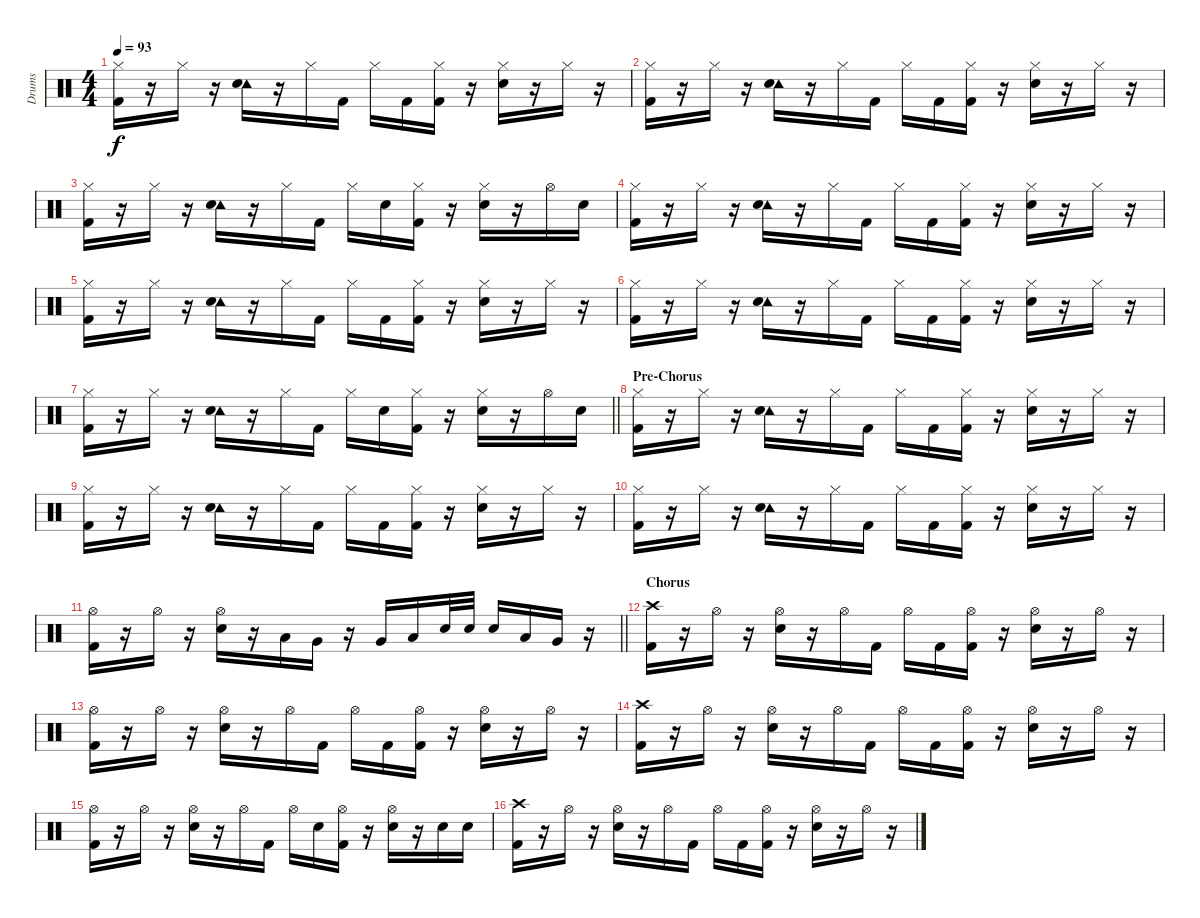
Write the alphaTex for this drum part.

\track ("Drums" "Drums") {instrument percussion}
\staff {score}
\articulation defaults
\ts (4 4)
\tempo 93
\clef neutral
\ks c
("Hi-Hat (closed)" "Kick (hit) 2").16{dy f} r.16 "Hi-Hat (closed)".16 r.16 ("Tambourine (hit)" "Electric Snare (hit)").16 r.16 "Hi-Hat (closed)".16 "Kick (hit) 2".16 "Hi-Hat (closed)".16 "Kick (hit) 2".16 ("Hi-Hat (closed)" "Kick (hit) 2").16 r.16 ("Hi-Hat (closed)" "Electric Snare (hit)").16 r.16 "Hi-Hat (closed)".16 r.16 |
("Hi-Hat (closed)" "Kick (hit) 2").16 r.16 "Hi-Hat (closed)".16 r.16 ("Tambourine (hit)" "Electric Snare (hit)").16 r.16 "Hi-Hat (closed)".16 "Kick (hit) 2".16 "Hi-Hat (closed)".16 "Kick (hit) 2".16 ("Hi-Hat (closed)" "Kick (hit) 2").16 r.16 ("Hi-Hat (closed)" "Electric Snare (hit)").16 r.16 "Hi-Hat (closed)".16 r.16 |
("Hi-Hat (closed)" "Kick (hit) 2").16 r.16 "Hi-Hat (closed)".16 r.16 ("Tambourine (hit)" "Electric Snare (hit)").16 r.16 "Hi-Hat (closed)".16 "Kick (hit) 2".16 "Hi-Hat (closed)".16 "Electric Snare (hit)".16 ("Hi-Hat (closed)" "Kick (hit) 2").16 r.16 ("Hi-Hat (closed)" "Electric Snare (hit)").16 r.16 "Hi-Hat (open)".16 "Electric Snare (hit)".16 |
("Hi-Hat (closed)" "Kick (hit) 2").16 r.16 "Hi-Hat (closed)".16 r.16 ("Tambourine (hit)" "Electric Snare (hit)").16 r.16 "Hi-Hat (closed)".16 "Kick (hit) 2".16 "Hi-Hat (closed)".16 "Kick (hit) 2".16 ("Hi-Hat (closed)" "Kick (hit) 2").16 r.16 ("Hi-Hat (closed)" "Electric Snare (hit)").16 r.16 "Hi-Hat (closed)".16 r.16 |
("Hi-Hat (closed)" "Kick (hit) 2").16 r.16 "Hi-Hat (closed)".16 r.16 ("Tambourine (hit)" "Electric Snare (hit)").16 r.16 "Hi-Hat (closed)".16 "Kick (hit) 2".16 "Hi-Hat (closed)".16 "Kick (hit) 2".16 ("Hi-Hat (closed)" "Kick (hit) 2").16 r.16 ("Hi-Hat (closed)" "Electric Snare (hit)").16 r.16 "Hi-Hat (closed)".16 r.16 |
("Hi-Hat (closed)" "Kick (hit) 2").16 r.16 "Hi-Hat (closed)".16 r.16 ("Tambourine (hit)" "Electric Snare (hit)").16 r.16 "Hi-Hat (closed)".16 "Kick (hit) 2".16 "Hi-Hat (closed)".16 "Kick (hit) 2".16 ("Hi-Hat (closed)" "Kick (hit) 2").16 r.16 ("Hi-Hat (closed)" "Electric Snare (hit)").16 r.16 "Hi-Hat (closed)".16 r.16 |
\barLineRight lightlight
("Hi-Hat (closed)" "Kick (hit) 2").16 r.16 "Hi-Hat (closed)".16 r.16 ("Tambourine (hit)" "Electric Snare (hit)").16 r.16 "Hi-Hat (closed)".16 "Kick (hit) 2".16 "Hi-Hat (closed)".16 "Electric Snare (hit)".16 ("Hi-Hat (closed)" "Kick (hit) 2").16 r.16 ("Hi-Hat (closed)" "Electric Snare (hit)").16 r.16 "Hi-Hat (open)".16 "Electric Snare (hit)".16 |
\section ("" "Pre-Chorus")
("Hi-Hat (closed)" "Kick (hit) 2").16 r.16 "Hi-Hat (closed)".16 r.16 ("Tambourine (hit)" "Electric Snare (hit)").16 r.16 "Hi-Hat (closed)".16 "Kick (hit) 2".16 "Hi-Hat (closed)".16 "Kick (hit) 2".16 ("Hi-Hat (closed)" "Kick (hit) 2").16 r.16 ("Hi-Hat (closed)" "Electric Snare (hit)").16 r.16 "Hi-Hat (closed)".16 r.16 |
("Hi-Hat (closed)" "Kick (hit) 2").16 r.16 "Hi-Hat (closed)".16 r.16 ("Tambourine (hit)" "Electric Snare (hit)").16 r.16 "Hi-Hat (closed)".16 "Kick (hit) 2".16 "Hi-Hat (closed)".16 "Kick (hit) 2".16 ("Hi-Hat (closed)" "Kick (hit) 2").16 r.16 ("Hi-Hat (closed)" "Electric Snare (hit)").16 r.16 "Hi-Hat (closed)".16 r.16 |
("Hi-Hat (closed)" "Kick (hit) 2").16 r.16 "Hi-Hat (closed)".16 r.16 ("Tambourine (hit)" "Electric Snare (hit)").16 r.16 "Hi-Hat (closed)".16 "Kick (hit) 2".16 "Hi-Hat (closed)".16 "Kick (hit) 2".16 ("Hi-Hat (closed)" "Kick (hit) 2").16 r.16 ("Hi-Hat (closed)" "Electric Snare (hit)").16 r.16 "Hi-Hat (closed)".16 r.16 |
\barLineRight lightlight
("Hi-Hat (open)" "Kick (hit) 2").16 r.16 "Hi-Hat (open)".16 r.16 ("Hi-Hat (open)" "Electric Snare (hit)").16 r.16 "Low Tom (hit)".16 "Very Low Tom (hit)".16 r.16 "Very Low Tom (hit)".16 "Low Tom (hit)".16 "Electric Snare (hit)".32 "Electric Snare (hit)".32 "Electric Snare (hit)".16 "Low Tom (hit)".16 "Very Low Tom (hit)".16 r.16 |
\section ("" "Chorus")
("Crash high (hit)" "Kick (hit) 2").16 r.16 "Hi-Hat (open)".16 r.16 ("Hi-Hat (open)" "Electric Snare (hit)").16 r.16 "Hi-Hat (open)".16 "Kick (hit) 2".16 "Hi-Hat (open)".16 "Kick (hit) 2".16 ("Hi-Hat (open)" "Kick (hit) 2").16 r.16 ("Hi-Hat (open)" "Electric Snare (hit)").16 r.16 "Hi-Hat (open)".16 r.16 |
("Hi-Hat (open)" "Kick (hit) 2").16 r.16 "Hi-Hat (open)".16 r.16 ("Hi-Hat (open)" "Electric Snare (hit)").16 r.16 "Hi-Hat (open)".16 "Kick (hit) 2".16 "Hi-Hat (open)".16 "Kick (hit) 2".16 ("Hi-Hat (open)" "Kick (hit) 2").16 r.16 ("Hi-Hat (open)" "Electric Snare (hit)").16 r.16 "Hi-Hat (open)".16 r.16 |
("Crash high (hit)" "Kick (hit) 2").16 r.16 "Hi-Hat (open)".16 r.16 ("Hi-Hat (open)" "Electric Snare (hit)").16 r.16 "Hi-Hat (open)".16 "Kick (hit) 2".16 "Hi-Hat (open)".16 "Kick (hit) 2".16 ("Hi-Hat (open)" "Kick (hit) 2").16 r.16 ("Hi-Hat (open)" "Electric Snare (hit)").16 r.16 "Hi-Hat (open)".16 r.16 |
("Hi-Hat (open)" "Kick (hit) 2").16 r.16 "Hi-Hat (open)".16 r.16 ("Hi-Hat (open)" "Electric Snare (hit)").16 r.16 "Hi-Hat (open)".16 "Kick (hit) 2".16 "Hi-Hat (open)".16 "Electric Snare (hit)".16 ("Hi-Hat (open)" "Kick (hit) 2").16 r.16 ("Hi-Hat (open)" "Electric Snare (hit)").16 r.16 "Electric Snare (hit)".16 "Electric Snare (hit)".16 |
("Crash high (hit)" "Kick (hit) 2").16 r.16 "Hi-Hat (open)".16 r.16 ("Hi-Hat (open)" "Electric Snare (hit)").16 r.16 "Hi-Hat (open)".16 "Kick (hit) 2".16 "Hi-Hat (open)".16 "Kick (hit) 2".16 ("Hi-Hat (open)" "Kick (hit) 2").16 r.16 ("Hi-Hat (open)" "Electric Snare (hit)").16 r.16 "Hi-Hat (open)".16 r.16
